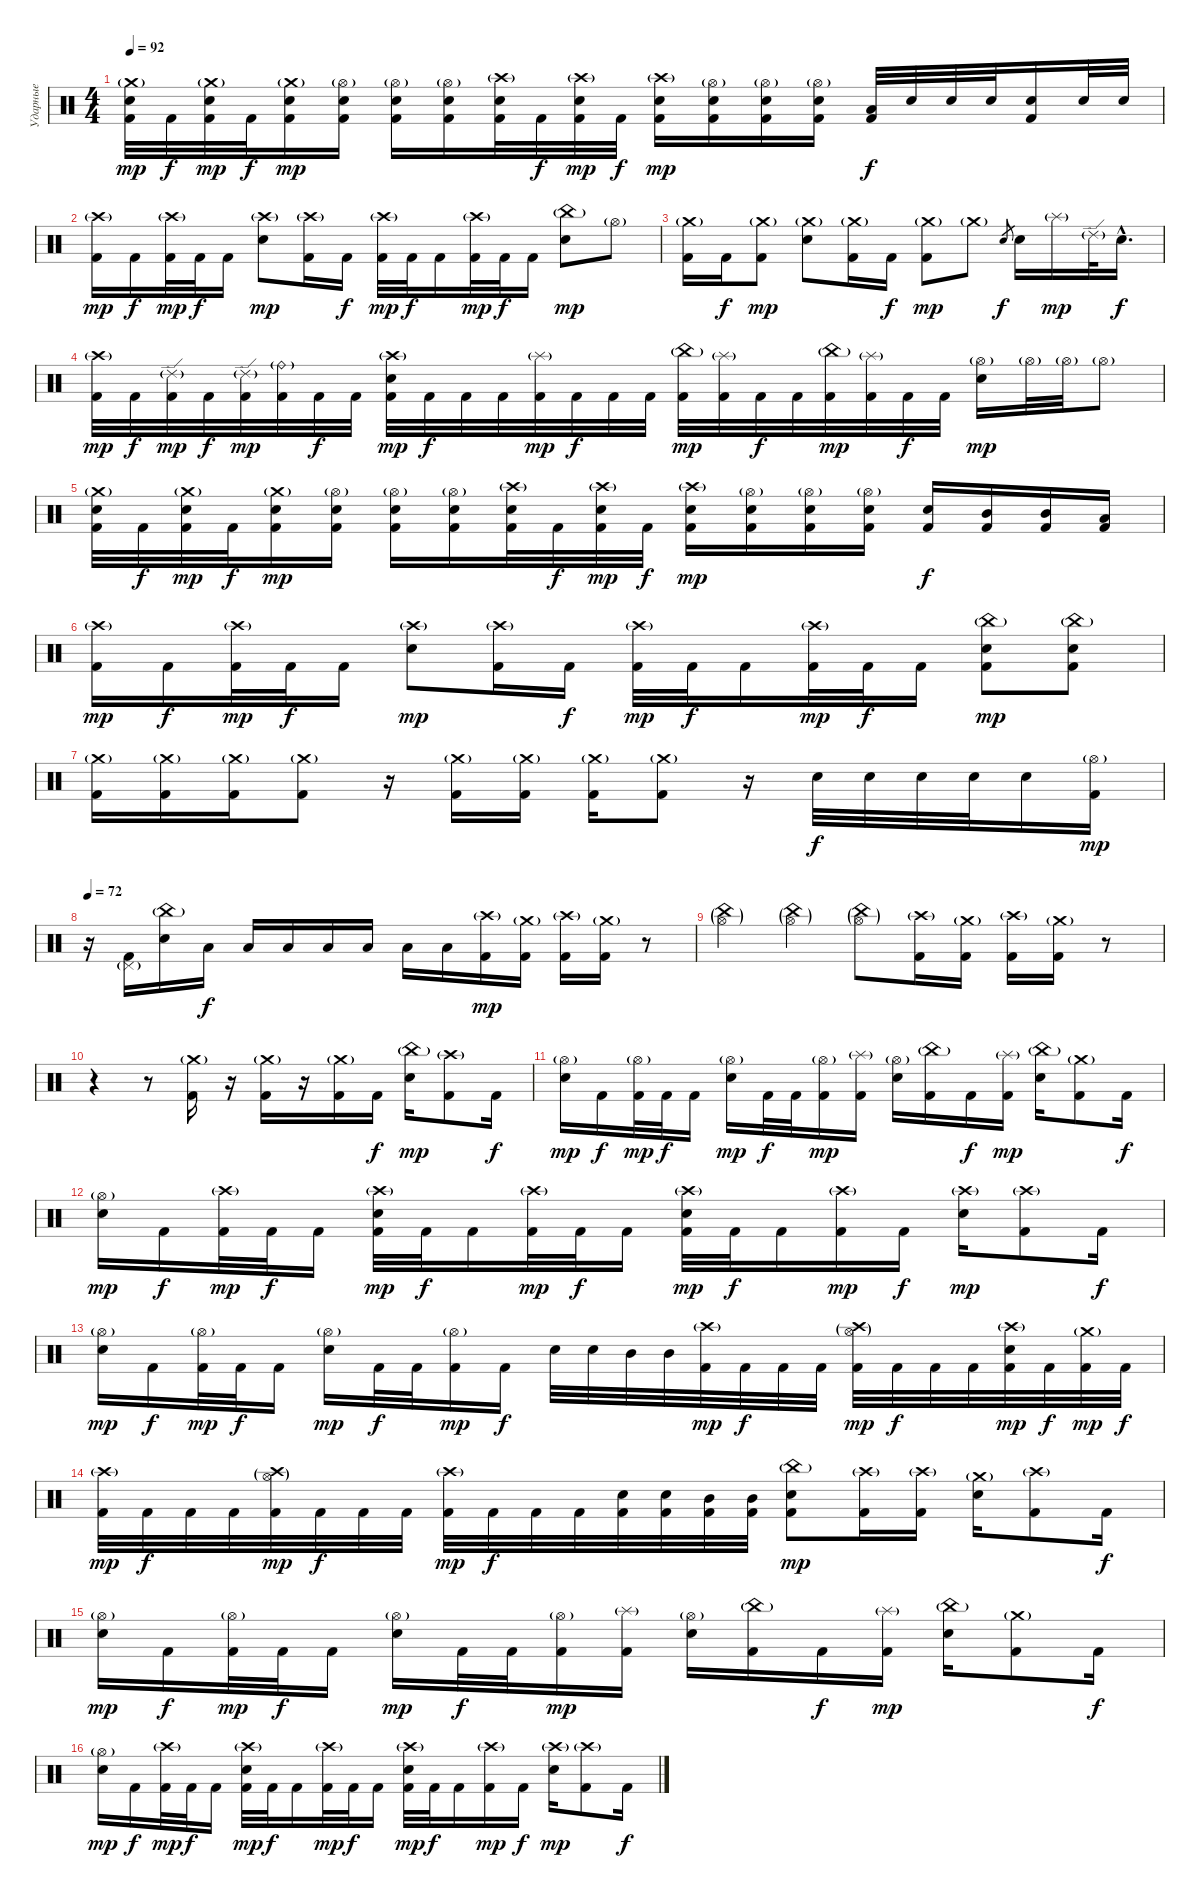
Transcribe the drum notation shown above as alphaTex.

\track ("Ударные" "Ударные") {instrument percussion}
\staff {score}
\articulation defaults
\ts (4 4)
\tempo 92
\clef neutral
\ks c
("Crash medium (hit)"{g} "Electric Snare (hit)" "Kick (hit) 2").32{dy mp} "Kick (hit) 2".32{dy f} ("Crash medium (hit)"{g} "Electric Snare (hit)" "Kick (hit) 2").32{dy mp} "Kick (hit) 2".32{dy f} ("Crash medium (hit)"{g} "Electric Snare (hit)" "Kick (hit) 2").16{dy mp} ("Hi-Hat (open)"{g} "Electric Snare (hit)" "Kick (hit) 2").16 ("Hi-Hat (open)"{g} "Electric Snare (hit)" "Kick (hit) 2").16 ("Hi-Hat (open)"{g} "Electric Snare (hit)" "Kick (hit) 2").16 ("Crash high (hit)"{g} "Electric Snare (hit)" "Kick (hit) 2").32 "Kick (hit) 2".32{dy f} ("Crash high (hit)"{g} "Electric Snare (hit)" "Kick (hit) 2").32{dy mp} "Kick (hit) 2".32{dy f} ("Crash high (hit)"{g} "Electric Snare (hit)" "Kick (hit) 2").16{dy mp} ("Hi-Hat (open)"{g} "Electric Snare (hit)" "Kick (hit) 2").16 ("Hi-Hat (open)"{g} "Electric Snare (hit)" "Kick (hit) 2").16 ("Hi-Hat (open)"{g} "Electric Snare (hit)" "Kick (hit) 2").16 ("Low Tom (hit)" "Kick (hit) 2").32{dy f} "Electric Snare (hit)".32 "Electric Snare (hit)".32 "Electric Snare (hit)".32 ("Electric Snare (hit)" "Kick (hit) 2").16 "Electric Snare (hit)".32 "Electric Snare (hit)".32 |
("Crash high (hit)"{g} "Kick (hit) 2").16{dy mp} "Kick (hit) 2".16{dy f} ("Crash high (hit)"{g} "Kick (hit) 2").32{dy mp} "Kick (hit) 2".32{dy f} "Kick (hit) 2".16 ("Crash high (hit)"{g} "Electric Snare (hit)").8{dy mp} ("Crash high (hit)"{g} "Kick (hit) 2").16 "Kick (hit) 2".16{dy f} ("Crash high (hit)"{g} "Kick (hit) 2").32{dy mp} "Kick (hit) 2".32{dy f} "Kick (hit) 2".16 ("Crash high (hit)"{g} "Kick (hit) 2").32{dy mp} "Kick (hit) 2".32{dy f} "Kick (hit) 2".16 ("China (hit)"{g} "Electric Snare (hit)").8{dy mp} "Hi-Hat (open)"{g}.8 |
("Crash medium (hit)"{g} "Kick (hit) 2").16 "Kick (hit) 2".16{dy f} ("Crash medium (hit)"{g} "Kick (hit) 2").8{dy mp} ("Crash medium (hit)"{g} "Electric Snare (hit)").8 ("Crash medium (hit)"{g} "Kick (hit) 2").16 "Kick (hit) 2".16{dy f} ("Crash medium (hit)"{g} "Kick (hit) 2").8{dy mp} "Crash medium (hit)"{g}.8 "Electric Snare (hit)".8{gr dy f} "Electric Snare (hit)".16 "Splash (hit)"{g}.16{dy mp} "Ride (edge) 2"{g}.32 "Electric Snare (hit)"{hac}.16{d dy f} |
("Crash high (hit)"{g} "Kick (hit) 2").32{dy mp} "Kick (hit) 2".32{dy f} ("Ride (edge) 2"{g} "Kick (hit) 2").32{dy mp} "Kick (hit) 2".32{dy f} ("Ride (edge) 2"{g} "Kick (hit) 2").32{dy mp} ("Ride (bell)"{g} "Kick (hit) 2").32 "Kick (hit) 2".32{dy f} "Kick (hit) 2".32 ("Crash high (hit)"{g} "Electric Snare (hit)" "Kick (hit) 2").32{dy mp} "Kick (hit) 2".32{dy f} "Kick (hit) 2".32 "Kick (hit) 2".32 ("Splash (hit)"{g} "Kick (hit) 2").32{dy mp} "Kick (hit) 2".32{dy f} "Kick (hit) 2".32 "Kick (hit) 2".32 ("China (hit)"{g} "Kick (hit) 2").32{dy mp} ("Splash (hit)"{g} "Kick (hit) 2").32 "Kick (hit) 2".32{dy f} "Kick (hit) 2".32 ("China (hit)"{g} "Kick (hit) 2").32{dy mp} ("Splash (hit)"{g} "Kick (hit) 2").32 "Kick (hit) 2".32{dy f} "Kick (hit) 2".32 ("Hi-Hat (open)"{g} "Electric Snare (hit)").16{dy mp} "Hi-Hat (open)"{g}.32 "Hi-Hat (open)"{g}.32 "Hi-Hat (open)"{g}.8 |
("Crash medium (hit)"{g} "Electric Snare (hit)" "Kick (hit) 2").32 "Kick (hit) 2".32{dy f} ("Crash medium (hit)"{g} "Electric Snare (hit)" "Kick (hit) 2").32{dy mp} "Kick (hit) 2".32{dy f} ("Crash medium (hit)"{g} "Electric Snare (hit)" "Kick (hit) 2").16{dy mp} ("Hi-Hat (open)"{g} "Electric Snare (hit)" "Kick (hit) 2").16 ("Hi-Hat (open)"{g} "Electric Snare (hit)" "Kick (hit) 2").16 ("Hi-Hat (open)"{g} "Electric Snare (hit)" "Kick (hit) 2").16 ("Crash high (hit)"{g} "Electric Snare (hit)" "Kick (hit) 2").32 "Kick (hit) 2".32{dy f} ("Crash high (hit)"{g} "Electric Snare (hit)" "Kick (hit) 2").32{dy mp} "Kick (hit) 2".32{dy f} ("Crash high (hit)"{g} "Electric Snare (hit)" "Kick (hit) 2").16{dy mp} ("Hi-Hat (open)"{g} "Electric Snare (hit)" "Kick (hit) 2").16 ("Hi-Hat (open)"{g} "Electric Snare (hit)" "Kick (hit) 2").16 ("Hi-Hat (open)"{g} "Electric Snare (hit)" "Kick (hit) 2").16 ("Electric Snare (hit)" "Kick (hit) 2").16{dy f} ("Mid Tom (hit)" "Kick (hit) 2").16 ("Mid Tom (hit)" "Kick (hit) 2").16 ("Low Tom (hit)" "Kick (hit) 2").16 |
("Crash high (hit)"{g} "Kick (hit) 2").16{dy mp} "Kick (hit) 2".16{dy f} ("Crash high (hit)"{g} "Kick (hit) 2").32{dy mp} "Kick (hit) 2".32{dy f} "Kick (hit) 2".16 ("Crash high (hit)"{g} "Electric Snare (hit)").8{dy mp} ("Crash high (hit)"{g} "Kick (hit) 2").16 "Kick (hit) 2".16{dy f} ("Crash high (hit)"{g} "Kick (hit) 2").32{dy mp} "Kick (hit) 2".32{dy f} "Kick (hit) 2".16 ("Crash high (hit)"{g} "Kick (hit) 2").32{dy mp} "Kick (hit) 2".32{dy f} "Kick (hit) 2".16 ("China (hit)"{g} "Electric Snare (hit)" "Kick (hit) 2").8{dy mp} ("China (hit)"{g} "Electric Snare (hit)" "Kick (hit) 2").8 |
("Crash medium (hit)"{g} "Kick (hit) 2").16 ("Crash medium (hit)"{g} "Kick (hit) 2").16 ("Crash medium (hit)"{g} "Kick (hit) 2").16 ("Crash medium (hit)"{g} "Kick (hit) 2").8 r.16{volume 0} ("Crash medium (hit)"{g} "Kick (hit) 2").16{volume 16} ("Crash medium (hit)"{g} "Kick (hit) 2").16 ("Crash medium (hit)"{g} "Kick (hit) 2").16 ("Crash medium (hit)"{g} "Kick (hit) 2").8 r.16{volume 0} "Electric Snare (hit)".32{dy f volume 16} "Electric Snare (hit)".32 "Electric Snare (hit)".32 "Electric Snare (hit)".32 "Electric Snare (hit)".16 ("Hi-Hat (open)"{g} "Kick (hit) 2").16{dy mp} |
\tempo 72
r.16 ("Pedal Hi-Hat (hit)"{g} "Kick (hit) 2").16 ("China (hit)"{g} "Electric Snare (hit)").16 "Low Tom (hit)".16{dy f} "Low Tom (hit)".16 "Low Tom (hit)".16 "Low Tom (hit)".16 "Low Tom (hit)".16 "Low Tom (hit)".16 "Low Tom (hit)".16 ("Crash high (hit)"{g} "Kick (hit) 2").16{dy mp} ("Crash medium (hit)"{g} "Kick (hit) 2").16 ("Crash high (hit)"{g} "Kick (hit) 2").16 ("Crash medium (hit)"{g} "Kick (hit) 2").16 r.8 |
("Hi-Hat (open)"{g} "China (hit)"{g}).4 ("Hi-Hat (open)"{g} "China (hit)"{g}).4 ("Hi-Hat (open)"{g} "China (hit)"{g}).8 ("Crash high (hit)"{g} "Kick (hit) 2").16 ("Crash medium (hit)"{g} "Kick (hit) 2").16 ("Crash high (hit)"{g} "Kick (hit) 2").16 ("Crash medium (hit)"{g} "Kick (hit) 2").16 r.8 |
r.4 r.8 ("Crash medium (hit)"{g} "Kick (hit) 2").16 r.16{volume 0} ("Crash medium (hit)"{g} "Kick (hit) 2").16{volume 16} r.16{volume 0} ("Crash medium (hit)"{g} "Kick (hit) 2").16{volume 16} "Kick (hit) 2".16{dy f} ("China (hit)"{g} "Electric Snare (hit)").16{dy mp} ("Crash high (hit)"{g} "Kick (hit) 2").8 "Kick (hit) 2".16{dy f} |
("Hi-Hat (open)"{g} "Electric Snare (hit)").16{dy mp} "Kick (hit) 2".16{dy f} ("Hi-Hat (open)"{g} "Kick (hit) 2").32{dy mp} "Kick (hit) 2".32{dy f} "Kick (hit) 2".16 ("Hi-Hat (open)"{g} "Electric Snare (hit)").16{dy mp} "Kick (hit) 2".32{dy f} "Kick (hit) 2".32 ("Hi-Hat (open)"{g} "Kick (hit) 2").16{dy mp} ("Splash (hit)"{g} "Kick (hit) 2").16 ("Hi-Hat (open)"{g} "Electric Snare (hit)").16 ("China (hit)"{g} "Kick (hit) 2").16 "Kick (hit) 2".16{dy f} ("Splash (hit)"{g} "Kick (hit) 2").16{dy mp} ("China (hit)"{g} "Electric Snare (hit)").16 ("Crash medium (hit)"{g} "Kick (hit) 2").8 "Kick (hit) 2".16{dy f} |
("Hi-Hat (open)"{g} "Electric Snare (hit)").16{dy mp} "Kick (hit) 2".16{dy f} ("Crash high (hit)"{g} "Kick (hit) 2").32{dy mp} "Kick (hit) 2".32{dy f} "Kick (hit) 2".16 ("Crash high (hit)"{g} "Electric Snare (hit)" "Kick (hit) 2").32{dy mp} "Kick (hit) 2".32{dy f} "Kick (hit) 2".16 ("Crash high (hit)"{g} "Kick (hit) 2").32{dy mp} "Kick (hit) 2".32{dy f} "Kick (hit) 2".16 ("Crash high (hit)"{g} "Electric Snare (hit)" "Kick (hit) 2").32{dy mp} "Kick (hit) 2".32{dy f} "Kick (hit) 2".16 ("Crash high (hit)"{g} "Kick (hit) 2").16{dy mp} "Kick (hit) 2".16{dy f} ("Crash high (hit)"{g} "Electric Snare (hit)").16{dy mp} ("Crash high (hit)"{g} "Kick (hit) 2").8 "Kick (hit) 2".16{dy f} |
("Hi-Hat (open)"{g} "Electric Snare (hit)").16{dy mp} "Kick (hit) 2".16{dy f} ("Hi-Hat (open)"{g} "Kick (hit) 2").32{dy mp} "Kick (hit) 2".32{dy f} "Kick (hit) 2".16 ("Hi-Hat (open)"{g} "Electric Snare (hit)").16{dy mp} "Kick (hit) 2".32{dy f} "Kick (hit) 2".32 ("Hi-Hat (open)"{g} "Kick (hit) 2").16{dy mp} "Kick (hit) 2".16{dy f} "Electric Snare (hit)".32 "Electric Snare (hit)".32 "Mid Tom (hit)".32 "Mid Tom (hit)".32 ("Crash high (hit)"{g} "Kick (hit) 2").32{dy mp} "Kick (hit) 2".32{dy f} "Kick (hit) 2".32 "Kick (hit) 2".32 ("Crash high (hit)"{g} "Hi-Hat (open)"{g} "Kick (hit) 2").32{dy mp} "Kick (hit) 2".32{dy f} "Kick (hit) 2".32 "Kick (hit) 2".32 ("Crash high (hit)"{g} "Electric Snare (hit)" "Kick (hit) 2").32{dy mp} "Kick (hit) 2".32{dy f} ("Crash medium (hit)"{g} "Kick (hit) 2").32{dy mp} "Kick (hit) 2".32{dy f} |
("Crash high (hit)"{g} "Kick (hit) 2").32{dy mp} "Kick (hit) 2".32{dy f} "Kick (hit) 2".32 "Kick (hit) 2".32 ("Crash high (hit)"{g} "Hi-Hat (open)"{g} "Kick (hit) 2").32{dy mp} "Kick (hit) 2".32{dy f} "Kick (hit) 2".32 "Kick (hit) 2".32 ("Crash high (hit)"{g} "Kick (hit) 2").32{dy mp} "Kick (hit) 2".32{dy f} "Kick (hit) 2".32 "Kick (hit) 2".32 ("Electric Snare (hit)" "Kick (hit) 2").32 ("Electric Snare (hit)" "Kick (hit) 2").32 ("Mid Tom (hit)" "Kick (hit) 2").32 ("Mid Tom (hit)" "Kick (hit) 2").32 ("China (hit)"{g} "Electric Snare (hit)" "Kick (hit) 2").8{dy mp} ("Crash high (hit)"{g} "Kick (hit) 2").16 ("Crash high (hit)"{g} "Kick (hit) 2").16 ("Crash medium (hit)"{g} "Electric Snare (hit)").16 ("Crash high (hit)"{g} "Kick (hit) 2").8 "Kick (hit) 2".16{dy f} |
("Hi-Hat (open)"{g} "Electric Snare (hit)").16{dy mp} "Kick (hit) 2".16{dy f} ("Hi-Hat (open)"{g} "Kick (hit) 2").32{dy mp} "Kick (hit) 2".32{dy f} "Kick (hit) 2".16 ("Hi-Hat (open)"{g} "Electric Snare (hit)").16{dy mp} "Kick (hit) 2".32{dy f} "Kick (hit) 2".32 ("Hi-Hat (open)"{g} "Kick (hit) 2").16{dy mp} ("Splash (hit)"{g} "Kick (hit) 2").16 ("Hi-Hat (open)"{g} "Electric Snare (hit)").16 ("China (hit)"{g} "Kick (hit) 2").16 "Kick (hit) 2".16{dy f} ("Splash (hit)"{g} "Kick (hit) 2").16{dy mp} ("China (hit)"{g} "Electric Snare (hit)").16 ("Crash medium (hit)"{g} "Kick (hit) 2").8 "Kick (hit) 2".16{dy f} |
("Hi-Hat (open)"{g} "Electric Snare (hit)").16{dy mp} "Kick (hit) 2".16{dy f} ("Crash high (hit)"{g} "Kick (hit) 2").32{dy mp} "Kick (hit) 2".32{dy f} "Kick (hit) 2".16 ("Crash high (hit)"{g} "Electric Snare (hit)" "Kick (hit) 2").32{dy mp} "Kick (hit) 2".32{dy f} "Kick (hit) 2".16 ("Crash high (hit)"{g} "Kick (hit) 2").32{dy mp} "Kick (hit) 2".32{dy f} "Kick (hit) 2".16 ("Crash high (hit)"{g} "Electric Snare (hit)" "Kick (hit) 2").32{dy mp} "Kick (hit) 2".32{dy f} "Kick (hit) 2".16 ("Crash high (hit)"{g} "Kick (hit) 2").16{dy mp} "Kick (hit) 2".16{dy f} ("Crash high (hit)"{g} "Electric Snare (hit)").16{dy mp} ("Crash high (hit)"{g} "Kick (hit) 2").8 "Kick (hit) 2".16{dy f}
